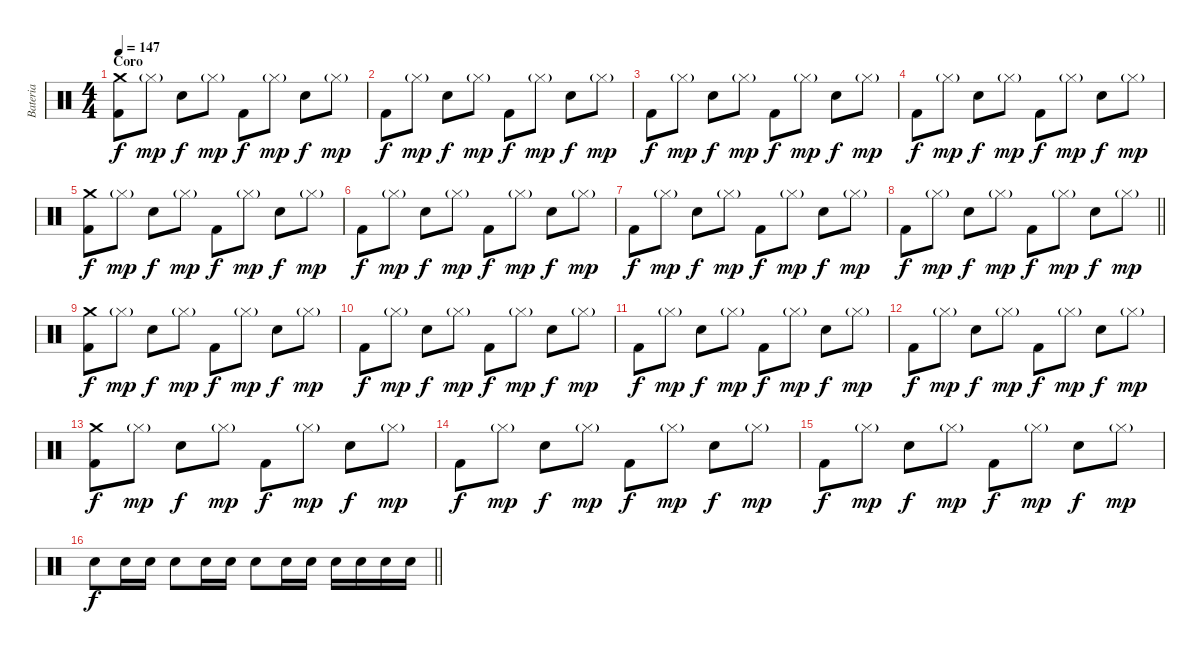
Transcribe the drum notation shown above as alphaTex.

\track ("Bateria" "Bateria") {instrument percussion}
\staff {score}
\articulation defaults
\ts (4 4)
\section ("" "Coro")
\tempo 147
\clef neutral
\ks c
("Crash medium (hit)" "Kick (hit) 2").8{dy f} "Hi-Hat (closed)"{g}.8{dy mp} "Electric Snare (hit)".8{dy f} "Hi-Hat (closed)"{g}.8{dy mp} "Kick (hit) 2".8{dy f} "Hi-Hat (closed)"{g}.8{dy mp} "Electric Snare (hit)".8{dy f} "Hi-Hat (closed)"{g}.8{dy mp} |
"Kick (hit) 2".8{dy f} "Hi-Hat (closed)"{g}.8{dy mp} "Electric Snare (hit)".8{dy f} "Hi-Hat (closed)"{g}.8{dy mp} "Kick (hit) 2".8{dy f} "Hi-Hat (closed)"{g}.8{dy mp} "Electric Snare (hit)".8{dy f} "Hi-Hat (closed)"{g}.8{dy mp} |
"Kick (hit) 2".8{dy f} "Hi-Hat (closed)"{g}.8{dy mp} "Electric Snare (hit)".8{dy f} "Hi-Hat (closed)"{g}.8{dy mp} "Kick (hit) 2".8{dy f} "Hi-Hat (closed)"{g}.8{dy mp} "Electric Snare (hit)".8{dy f} "Hi-Hat (closed)"{g}.8{dy mp} |
"Kick (hit) 2".8{dy f} "Hi-Hat (closed)"{g}.8{dy mp} "Electric Snare (hit)".8{dy f} "Hi-Hat (closed)"{g}.8{dy mp} "Kick (hit) 2".8{dy f} "Hi-Hat (closed)"{g}.8{dy mp} "Electric Snare (hit)".8{dy f} "Hi-Hat (closed)"{g}.8{dy mp} |
("Crash medium (hit)" "Kick (hit) 2").8{dy f} "Hi-Hat (closed)"{g}.8{dy mp} "Electric Snare (hit)".8{dy f} "Hi-Hat (closed)"{g}.8{dy mp} "Kick (hit) 2".8{dy f} "Hi-Hat (closed)"{g}.8{dy mp} "Electric Snare (hit)".8{dy f} "Hi-Hat (closed)"{g}.8{dy mp} |
"Kick (hit) 2".8{dy f} "Hi-Hat (closed)"{g}.8{dy mp} "Electric Snare (hit)".8{dy f} "Hi-Hat (closed)"{g}.8{dy mp} "Kick (hit) 2".8{dy f} "Hi-Hat (closed)"{g}.8{dy mp} "Electric Snare (hit)".8{dy f} "Hi-Hat (closed)"{g}.8{dy mp} |
"Kick (hit) 2".8{dy f} "Hi-Hat (closed)"{g}.8{dy mp} "Electric Snare (hit)".8{dy f} "Hi-Hat (closed)"{g}.8{dy mp} "Kick (hit) 2".8{dy f} "Hi-Hat (closed)"{g}.8{dy mp} "Electric Snare (hit)".8{dy f} "Hi-Hat (closed)"{g}.8{dy mp} |
\barLineRight lightlight "Kick (hit) 2".8{dy f} "Hi-Hat (closed)"{g}.8{dy mp} "Electric Snare (hit)".8{dy f} "Hi-Hat (closed)"{g}.8{dy mp} "Kick (hit) 2".8{dy f} "Hi-Hat (closed)"{g}.8{dy mp} "Electric Snare (hit)".8{dy f} "Hi-Hat (closed)"{g}.8{dy mp}
|
\section ("" "")
("Crash medium (hit)" "Kick (hit) 2").8{dy f} "Hi-Hat (closed)"{g}.8{dy mp} "Electric Snare (hit)".8{dy f} "Hi-Hat (closed)"{g}.8{dy mp} "Kick (hit) 2".8{dy f} "Hi-Hat (closed)"{g}.8{dy mp} "Electric Snare (hit)".8{dy f} "Hi-Hat (closed)"{g}.8{dy mp} |
"Kick (hit) 2".8{dy f} "Hi-Hat (closed)"{g}.8{dy mp} "Electric Snare (hit)".8{dy f} "Hi-Hat (closed)"{g}.8{dy mp} "Kick (hit) 2".8{dy f} "Hi-Hat (closed)"{g}.8{dy mp} "Electric Snare (hit)".8{dy f} "Hi-Hat (closed)"{g}.8{dy mp} |
"Kick (hit) 2".8{dy f} "Hi-Hat (closed)"{g}.8{dy mp} "Electric Snare (hit)".8{dy f} "Hi-Hat (closed)"{g}.8{dy mp} "Kick (hit) 2".8{dy f} "Hi-Hat (closed)"{g}.8{dy mp} "Electric Snare (hit)".8{dy f} "Hi-Hat (closed)"{g}.8{dy mp} |
"Kick (hit) 2".8{dy f} "Hi-Hat (closed)"{g}.8{dy mp} "Electric Snare (hit)".8{dy f} "Hi-Hat (closed)"{g}.8{dy mp} "Kick (hit) 2".8{dy f} "Hi-Hat (closed)"{g}.8{dy mp} "Electric Snare (hit)".8{dy f} "Hi-Hat (closed)"{g}.8{dy mp} |
("Crash medium (hit)" "Kick (hit) 2").8{dy f} "Hi-Hat (closed)"{g}.8{dy mp} "Electric Snare (hit)".8{dy f} "Hi-Hat (closed)"{g}.8{dy mp} "Kick (hit) 2".8{dy f} "Hi-Hat (closed)"{g}.8{dy mp} "Electric Snare (hit)".8{dy f} "Hi-Hat (closed)"{g}.8{dy mp} |
"Kick (hit) 2".8{dy f} "Hi-Hat (closed)"{g}.8{dy mp} "Electric Snare (hit)".8{dy f} "Hi-Hat (closed)"{g}.8{dy mp} "Kick (hit) 2".8{dy f} "Hi-Hat (closed)"{g}.8{dy mp} "Electric Snare (hit)".8{dy f} "Hi-Hat (closed)"{g}.8{dy mp} |
"Kick (hit) 2".8{dy f} "Hi-Hat (closed)"{g}.8{dy mp} "Electric Snare (hit)".8{dy f} "Hi-Hat (closed)"{g}.8{dy mp} "Kick (hit) 2".8{dy f} "Hi-Hat (closed)"{g}.8{dy mp} "Electric Snare (hit)".8{dy f} "Hi-Hat (closed)"{g}.8{dy mp} |
\barLineRight lightlight "Electric Snare (hit)".8{dy f} "Electric Snare (hit)".16 "Electric Snare (hit)".16 "Electric Snare (hit)".8 "Electric Snare (hit)".16 "Electric Snare (hit)".16 "Electric Snare (hit)".8 "Electric Snare (hit)".16 "Electric Snare (hit)".16 "Electric Snare (hit)".16 "Electric Snare (hit)".16 "Electric Snare (hit)".16 "Electric Snare (hit)".16
